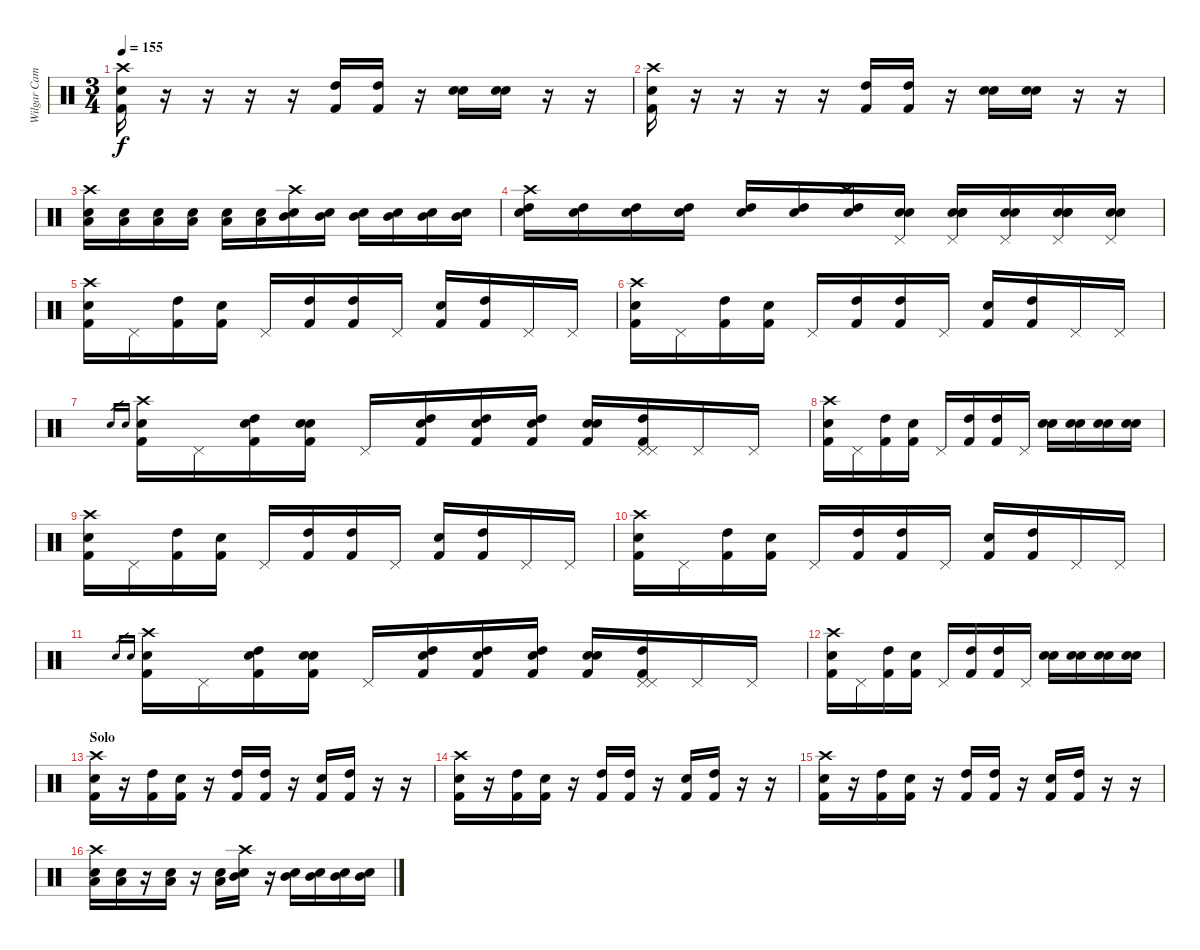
\track ("Wilgar Campbell" "Wilgar Cam") {instrument percussion}
\staff {score}
\articulation defaults
\ts (3 4)
\tempo 155
\clef neutral
\ks c
("Kick (hit) 2" "Snare (hit) 2" "Crash high (hit)").16{dy f} r.16 r.16 r.16 r.16 ("High Tom (hit)" "Kick (hit) 2").16 ("High Tom (hit)" "Kick (hit) 2").16 r.16 ("Electric Snare (hit)" "Electric Snare (hit)").16 ("Electric Snare (hit)" "Electric Snare (hit)").16 r.16 r.16 |
("Kick (hit) 2" "Snare (hit) 2" "Crash high (hit)").16 r.16 r.16 r.16 r.16 ("High Tom (hit)" "Kick (hit) 2").16 ("High Tom (hit)" "Kick (hit) 2").16 r.16 ("Electric Snare (hit)" "Electric Snare (hit)").16 ("Electric Snare (hit)" "Electric Snare (hit)").16 r.16 r.16 |
("Crash high (hit)" "Low Tom (hit)" "Snare (hit) 2").16 ("Low Tom (hit)" "Snare (hit) 2").16 ("Low Tom (hit)" "Snare (hit) 2").16 ("Low Tom (hit)" "Snare (hit) 2").16 ("Low Tom (hit)" "Snare (hit) 2").16 ("Low Tom (hit)" "Snare (hit) 2").16 ("Crash high (hit)" "Mid Tom (hit)" "Snare (hit) 2").16 ("Mid Tom (hit)" "Snare (hit) 2").16 ("Mid Tom (hit)" "Snare (hit) 2").16 ("Mid Tom (hit)" "Snare (hit) 2").16 ("Mid Tom (hit)" "Snare (hit) 2").16 ("Mid Tom (hit)" "Snare (hit) 2").16 |
("Crash high (hit)" "High Tom (hit)" "Snare (hit) 2").16 ("High Tom (hit)" "Snare (hit) 2").16 ("High Tom (hit)" "Snare (hit) 2").16 ("High Tom (hit)" "Snare (hit) 2").16 ("High Tom (hit)" "Snare (hit) 2").16 ("High Tom (hit)" "Snare (hit) 2").16 ("Crash high (hit)" "High Tom (hit)" "Snare (hit) 2").16 ("Electric Snare (hit)" "Electric Snare (hit)" "Pedal Hi-Hat (hit)").16 ("Electric Snare (hit)" "Electric Snare (hit)" "Snare (hit) 2" "Pedal Hi-Hat (hit)").16 ("Electric Snare (hit)" "Electric Snare (hit)" "Pedal Hi-Hat (hit)").16 ("Electric Snare (hit)" "Electric Snare (hit)" "Snare (hit) 2" "Pedal Hi-Hat (hit)").16 ("Electric Snare (hit)" "Electric Snare (hit)" "Pedal Hi-Hat (hit)").16 |
("Kick (hit) 2" "Snare (hit) 2" "Crash high (hit)").16 "Pedal Hi-Hat (hit)".16 ("Kick (hit) 2" "High Tom (hit)").16 ("Kick (hit) 2" "Snare (hit) 2").16 "Pedal Hi-Hat (hit)".16 ("High Tom (hit)" "Kick (hit) 2").16 ("High Tom (hit)" "Kick (hit) 2").16 "Pedal Hi-Hat (hit)".16 ("Electric Snare (hit)" "Kick (hit) 2").16 ("High Tom (hit)" "Kick (hit) 2").16 "Pedal Hi-Hat (hit)".16 "Pedal Hi-Hat (hit)".16 |
("Kick (hit) 2" "Snare (hit) 2" "Crash high (hit)").16 "Pedal Hi-Hat (hit)".16 ("Kick (hit) 2" "High Tom (hit)").16 ("Kick (hit) 2" "Snare (hit) 2").16 "Pedal Hi-Hat (hit)".16 ("High Tom (hit)" "Kick (hit) 2").16 ("High Tom (hit)" "Kick (hit) 2").16 "Pedal Hi-Hat (hit)".16 ("Electric Snare (hit)" "Kick (hit) 2").16 ("High Tom (hit)" "Kick (hit) 2").16 "Pedal Hi-Hat (hit)".16 "Pedal Hi-Hat (hit)".16 |
"Electric Snare (hit)".16{gr} "Electric Snare (hit)".16{gr} ("Kick (hit) 2" "Snare (hit) 2" "Crash high (hit)").16 "Pedal Hi-Hat (hit)".16 ("Electric Snare (hit)" "Kick (hit) 2" "High Tom (hit)").16 ("Electric Snare (hit)" "Kick (hit) 2" "Snare (hit) 2").16 "Pedal Hi-Hat (hit)".16 ("Electric Snare (hit)" "High Tom (hit)" "Kick (hit) 2").16 ("Electric Snare (hit)" "High Tom (hit)" "Kick (hit) 2").16 ("Electric Snare (hit)" "High Tom (hit)" "Kick (hit) 2").16 ("Electric Snare (hit)" "Electric Snare (hit)" "Kick (hit) 2").16 ("Kick (hit) 2" "Pedal Hi-Hat (hit)" "High Tom (hit)" "Pedal Hi-Hat (hit)").16 "Pedal Hi-Hat (hit)".16 "Pedal Hi-Hat (hit)".16 |
("Kick (hit) 2" "Snare (hit) 2" "Crash high (hit)").16 "Pedal Hi-Hat (hit)".16 ("Kick (hit) 2" "High Tom (hit)").16 ("Kick (hit) 2" "Snare (hit) 2").16 "Pedal Hi-Hat (hit)".16 ("High Tom (hit)" "Kick (hit) 2").16 ("High Tom (hit)" "Kick (hit) 2").16 "Pedal Hi-Hat (hit)".16 ("Electric Snare (hit)" "Electric Snare (hit)").16 ("Electric Snare (hit)" "Electric Snare (hit)").16 ("Electric Snare (hit)" "Electric Snare (hit)").16 ("Electric Snare (hit)" "Electric Snare (hit)").16 |
("Kick (hit) 2" "Snare (hit) 2" "Crash high (hit)").16 "Pedal Hi-Hat (hit)".16 ("Kick (hit) 2" "High Tom (hit)").16 ("Kick (hit) 2" "Snare (hit) 2").16 "Pedal Hi-Hat (hit)".16 ("High Tom (hit)" "Kick (hit) 2").16 ("High Tom (hit)" "Kick (hit) 2").16 "Pedal Hi-Hat (hit)".16 ("Electric Snare (hit)" "Kick (hit) 2").16 ("High Tom (hit)" "Kick (hit) 2").16 "Pedal Hi-Hat (hit)".16 "Pedal Hi-Hat (hit)".16 |
("Kick (hit) 2" "Snare (hit) 2" "Crash high (hit)").16 "Pedal Hi-Hat (hit)".16 ("Kick (hit) 2" "High Tom (hit)").16 ("Kick (hit) 2" "Snare (hit) 2").16 "Pedal Hi-Hat (hit)".16 ("High Tom (hit)" "Kick (hit) 2").16 ("High Tom (hit)" "Kick (hit) 2").16 "Pedal Hi-Hat (hit)".16 ("Electric Snare (hit)" "Kick (hit) 2").16 ("High Tom (hit)" "Kick (hit) 2").16 "Pedal Hi-Hat (hit)".16 "Pedal Hi-Hat (hit)".16 |
"Electric Snare (hit)".16{gr} "Electric Snare (hit)".16{gr} ("Kick (hit) 2" "Snare (hit) 2" "Crash high (hit)").16 "Pedal Hi-Hat (hit)".16 ("Electric Snare (hit)" "Kick (hit) 2" "High Tom (hit)").16 ("Electric Snare (hit)" "Kick (hit) 2" "Snare (hit) 2").16 "Pedal Hi-Hat (hit)".16 ("Electric Snare (hit)" "High Tom (hit)" "Kick (hit) 2").16 ("Electric Snare (hit)" "High Tom (hit)" "Kick (hit) 2").16 ("Electric Snare (hit)" "High Tom (hit)" "Kick (hit) 2").16 ("Electric Snare (hit)" "Electric Snare (hit)" "Kick (hit) 2").16 ("Kick (hit) 2" "Pedal Hi-Hat (hit)" "High Tom (hit)" "Pedal Hi-Hat (hit)").16 "Pedal Hi-Hat (hit)".16 "Pedal Hi-Hat (hit)".16 |
("Kick (hit) 2" "Snare (hit) 2" "Crash high (hit)").16 "Pedal Hi-Hat (hit)".16 ("Kick (hit) 2" "High Tom (hit)").16 ("Kick (hit) 2" "Snare (hit) 2").16 "Pedal Hi-Hat (hit)".16 ("High Tom (hit)" "Kick (hit) 2").16 ("High Tom (hit)" "Kick (hit) 2").16 "Pedal Hi-Hat (hit)".16 ("Electric Snare (hit)" "Electric Snare (hit)").16 ("Electric Snare (hit)" "Electric Snare (hit)").16 ("Electric Snare (hit)" "Electric Snare (hit)").16 ("Electric Snare (hit)" "Electric Snare (hit)").16 |
\section ("" "Solo")
("Kick (hit) 2" "Snare (hit) 2" "Crash high (hit)").16 r.16 ("Kick (hit) 2" "High Tom (hit)").16 ("Kick (hit) 2" "Snare (hit) 2").16 r.16 ("High Tom (hit)" "Kick (hit) 2").16 ("High Tom (hit)" "Kick (hit) 2").16 r.16 ("Electric Snare (hit)" "Kick (hit) 2").16 ("High Tom (hit)" "Kick (hit) 2").16 r.16 r.16 |
("Kick (hit) 2" "Snare (hit) 2" "Crash high (hit)").16 r.16 ("Kick (hit) 2" "High Tom (hit)").16 ("Kick (hit) 2" "Snare (hit) 2").16 r.16 ("High Tom (hit)" "Kick (hit) 2").16 ("High Tom (hit)" "Kick (hit) 2").16 r.16 ("Electric Snare (hit)" "Kick (hit) 2").16 ("High Tom (hit)" "Kick (hit) 2").16 r.16 r.16 |
("Kick (hit) 2" "Snare (hit) 2" "Crash high (hit)").16 r.16 ("Kick (hit) 2" "High Tom (hit)").16 ("Kick (hit) 2" "Snare (hit) 2").16 r.16 ("High Tom (hit)" "Kick (hit) 2").16 ("High Tom (hit)" "Kick (hit) 2").16 r.16 ("Electric Snare (hit)" "Kick (hit) 2").16 ("High Tom (hit)" "Kick (hit) 2").16 r.16 r.16 |
("Crash high (hit)" "Low Tom (hit)" "Snare (hit) 2").16 ("Low Tom (hit)" "Snare (hit) 2").16 r.16 ("Low Tom (hit)" "Snare (hit) 2").16 r.16 ("Low Tom (hit)" "Snare (hit) 2").16 ("Crash high (hit)" "Mid Tom (hit)" "Snare (hit) 2").16 r.16 ("Mid Tom (hit)" "Snare (hit) 2").16 ("Mid Tom (hit)" "Snare (hit) 2").16 ("Mid Tom (hit)" "Snare (hit) 2").16 ("Mid Tom (hit)" "Snare (hit) 2").16
